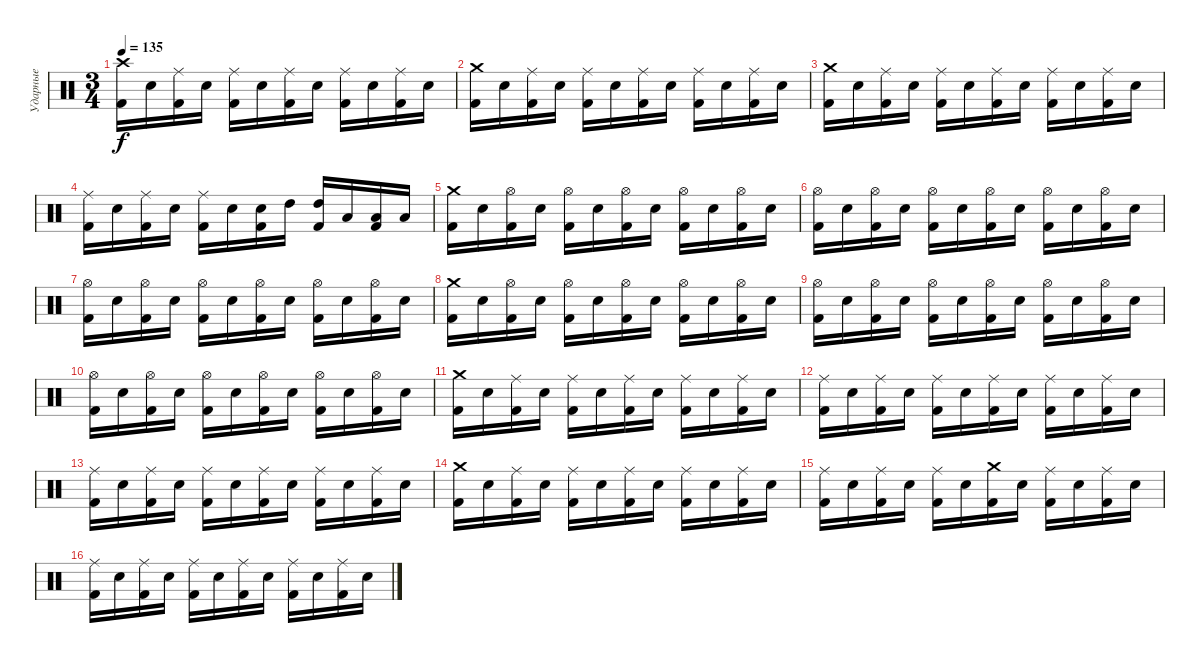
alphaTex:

\track ("Ударные" "Ударные") {instrument percussion}
\staff {score}
\articulation defaults
\ts (3 4)
\tempo 135
\clef neutral
\ks c
("Crash high (hit)" "Kick (hit) 2").16{dy f} "Electric Snare (hit)".16 ("Ride (middle)" "Kick (hit) 2").16 "Electric Snare (hit)".16 ("Ride (middle)" "Kick (hit) 2").16 "Electric Snare (hit)".16 ("Ride (middle)" "Kick (hit) 2").16 "Electric Snare (hit)".16 ("Ride (middle)" "Kick (hit) 2").16 "Electric Snare (hit)".16 ("Ride (middle)" "Kick (hit) 2").16 "Electric Snare (hit)".16 |
("Crash medium (hit)" "Kick (hit) 2").16 "Electric Snare (hit)".16 ("Ride (middle)" "Kick (hit) 2").16 "Electric Snare (hit)".16 ("Ride (middle)" "Kick (hit) 2").16 "Electric Snare (hit)".16 ("Ride (middle)" "Kick (hit) 2").16 "Electric Snare (hit)".16 ("Ride (middle)" "Kick (hit) 2").16 "Electric Snare (hit)".16 ("Ride (middle)" "Kick (hit) 2").16 "Electric Snare (hit)".16 |
("Crash medium (hit)" "Kick (hit) 2").16 "Electric Snare (hit)".16 ("Ride (middle)" "Kick (hit) 2").16 "Electric Snare (hit)".16 ("Ride (middle)" "Kick (hit) 2").16 "Electric Snare (hit)".16 ("Ride (middle)" "Kick (hit) 2").16 "Electric Snare (hit)".16 ("Ride (middle)" "Kick (hit) 2").16 "Electric Snare (hit)".16 ("Ride (middle)" "Kick (hit) 2").16 "Electric Snare (hit)".16 |
("Ride (middle)" "Kick (hit) 2").16 "Electric Snare (hit)".16 ("Ride (middle)" "Kick (hit) 2").16 "Electric Snare (hit)".16 ("Ride (middle)" "Kick (hit) 2").16 "Electric Snare (hit)".16 ("Electric Snare (hit)" "Kick (hit) 2").16 "High Tom (hit)".16 ("High Tom (hit)" "Kick (hit) 2").16 "Low Tom (hit)".16 ("Low Tom (hit)" "Kick (hit) 2").16 "Low Tom (hit)".16 |
("Crash medium (hit)" "Kick (hit) 2").16 "Electric Snare (hit)".16 ("Hi-Hat (open)" "Kick (hit) 2").16 "Electric Snare (hit)".16 ("Hi-Hat (open)" "Kick (hit) 2").16 "Electric Snare (hit)".16 ("Hi-Hat (open)" "Kick (hit) 2").16 "Electric Snare (hit)".16 ("Hi-Hat (open)" "Kick (hit) 2").16 "Electric Snare (hit)".16 ("Hi-Hat (open)" "Kick (hit) 2").16 "Electric Snare (hit)".16 |
("Hi-Hat (open)" "Kick (hit) 2").16 "Electric Snare (hit)".16 ("Hi-Hat (open)" "Kick (hit) 2").16 "Electric Snare (hit)".16 ("Hi-Hat (open)" "Kick (hit) 2").16 "Electric Snare (hit)".16 ("Hi-Hat (open)" "Kick (hit) 2").16 "Electric Snare (hit)".16 ("Hi-Hat (open)" "Kick (hit) 2").16 "Electric Snare (hit)".16 ("Hi-Hat (open)" "Kick (hit) 2").16 "Electric Snare (hit)".16 |
("Hi-Hat (open)" "Kick (hit) 2").16 "Electric Snare (hit)".16 ("Hi-Hat (open)" "Kick (hit) 2").16 "Electric Snare (hit)".16 ("Hi-Hat (open)" "Kick (hit) 2").16 "Electric Snare (hit)".16 ("Hi-Hat (open)" "Kick (hit) 2").16 "Electric Snare (hit)".16 ("Hi-Hat (open)" "Kick (hit) 2").16 "Electric Snare (hit)".16 ("Hi-Hat (open)" "Kick (hit) 2").16 "Electric Snare (hit)".16 |
("Crash medium (hit)" "Kick (hit) 2").16 "Electric Snare (hit)".16 ("Hi-Hat (open)" "Kick (hit) 2").16 "Electric Snare (hit)".16 ("Hi-Hat (open)" "Kick (hit) 2").16 "Electric Snare (hit)".16 ("Hi-Hat (open)" "Kick (hit) 2").16 "Electric Snare (hit)".16 ("Hi-Hat (open)" "Kick (hit) 2").16 "Electric Snare (hit)".16 ("Hi-Hat (open)" "Kick (hit) 2").16 "Electric Snare (hit)".16 |
("Hi-Hat (open)" "Kick (hit) 2").16 "Electric Snare (hit)".16 ("Hi-Hat (open)" "Kick (hit) 2").16 "Electric Snare (hit)".16 ("Hi-Hat (open)" "Kick (hit) 2").16 "Electric Snare (hit)".16 ("Hi-Hat (open)" "Kick (hit) 2").16 "Electric Snare (hit)".16 ("Hi-Hat (open)" "Kick (hit) 2").16 "Electric Snare (hit)".16 ("Hi-Hat (open)" "Kick (hit) 2").16 "Electric Snare (hit)".16 |
("Hi-Hat (open)" "Kick (hit) 2").16 "Electric Snare (hit)".16 ("Hi-Hat (open)" "Kick (hit) 2").16 "Electric Snare (hit)".16 ("Hi-Hat (open)" "Kick (hit) 2").16 "Electric Snare (hit)".16 ("Hi-Hat (open)" "Kick (hit) 2").16 "Electric Snare (hit)".16 ("Hi-Hat (open)" "Kick (hit) 2").16 "Electric Snare (hit)".16 ("Hi-Hat (open)" "Kick (hit) 2").16 "Electric Snare (hit)".16 |
("Crash medium (hit)" "Kick (hit) 2").16 "Electric Snare (hit)".16 ("Ride (middle)" "Kick (hit) 2").16 "Electric Snare (hit)".16 ("Ride (middle)" "Kick (hit) 2").16 "Electric Snare (hit)".16 ("Ride (middle)" "Kick (hit) 2").16 "Electric Snare (hit)".16 ("Ride (middle)" "Kick (hit) 2").16 "Electric Snare (hit)".16 ("Ride (middle)" "Kick (hit) 2").16 "Electric Snare (hit)".16 |
("Ride (middle)" "Kick (hit) 2").16 "Electric Snare (hit)".16 ("Ride (middle)" "Kick (hit) 2").16 "Electric Snare (hit)".16 ("Ride (middle)" "Kick (hit) 2").16 "Electric Snare (hit)".16 ("Ride (middle)" "Kick (hit) 2").16 "Electric Snare (hit)".16 ("Ride (middle)" "Kick (hit) 2").16 "Electric Snare (hit)".16 ("Ride (middle)" "Kick (hit) 2").16 "Electric Snare (hit)".16 |
("Ride (middle)" "Kick (hit) 2").16 "Electric Snare (hit)".16 ("Ride (middle)" "Kick (hit) 2").16 "Electric Snare (hit)".16 ("Ride (middle)" "Kick (hit) 2").16 "Electric Snare (hit)".16 ("Ride (middle)" "Kick (hit) 2").16 "Electric Snare (hit)".16 ("Ride (middle)" "Kick (hit) 2").16 "Electric Snare (hit)".16 ("Ride (middle)" "Kick (hit) 2").16 "Electric Snare (hit)".16 |
("Crash medium (hit)" "Kick (hit) 2").16 "Electric Snare (hit)".16 ("Ride (middle)" "Kick (hit) 2").16 "Electric Snare (hit)".16 ("Ride (middle)" "Kick (hit) 2").16 "Electric Snare (hit)".16 ("Ride (middle)" "Kick (hit) 2").16 "Electric Snare (hit)".16 ("Ride (middle)" "Kick (hit) 2").16 "Electric Snare (hit)".16 ("Ride (middle)" "Kick (hit) 2").16 "Electric Snare (hit)".16 |
("Ride (middle)" "Kick (hit) 2").16 "Electric Snare (hit)".16 ("Ride (middle)" "Kick (hit) 2").16 "Electric Snare (hit)".16 ("Ride (middle)" "Kick (hit) 2").16 "Electric Snare (hit)".16 ("Crash medium (hit)" "Kick (hit) 2").16 "Electric Snare (hit)".16 ("Ride (middle)" "Kick (hit) 2").16 "Electric Snare (hit)".16 ("Ride (middle)" "Kick (hit) 2").16 "Electric Snare (hit)".16 |
("Ride (middle)" "Kick (hit) 2").16 "Electric Snare (hit)".16 ("Ride (middle)" "Kick (hit) 2").16 "Electric Snare (hit)".16 ("Ride (middle)" "Kick (hit) 2").16 "Electric Snare (hit)".16 ("Ride (middle)" "Kick (hit) 2").16 "Electric Snare (hit)".16 ("Ride (middle)" "Kick (hit) 2").16 "Electric Snare (hit)".16 ("Ride (middle)" "Kick (hit) 2").16 "Electric Snare (hit)".16
